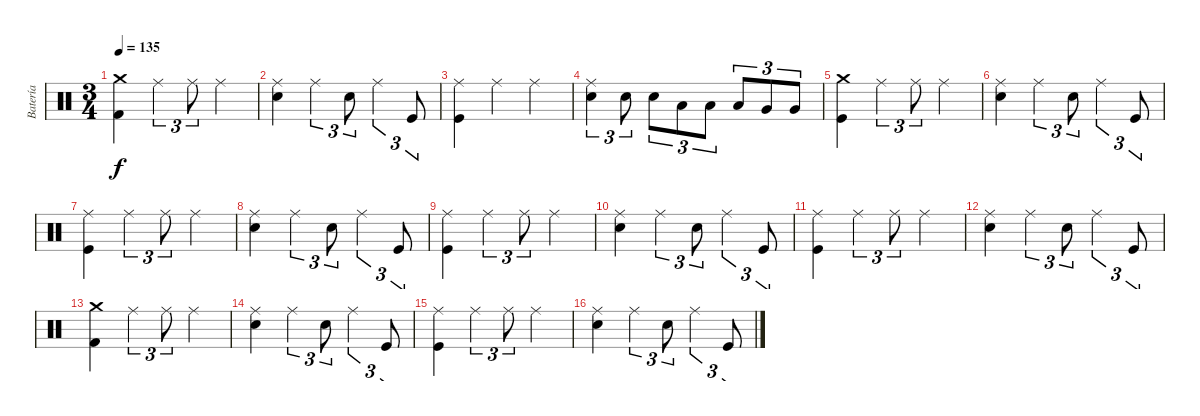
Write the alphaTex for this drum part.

\track ("Batería" "Batería") {instrument percussion}
\staff {score}
\articulation defaults
\ts (3 4)
\tempo 135
\clef neutral
\ks c
("Crash medium (hit)" "Kick (hit) 2").4{dy f} "Ride (middle)".4{tu (3 2)} "Ride (middle)".8{tu (3 2)} "Ride (middle)".4 |
("Ride (middle)" "Snare (hit) 2").4 "Ride (middle)".4{tu (3 2)} "Snare (hit) 2".8{tu (3 2)} "Ride (middle)".4{tu (3 2)} "Kick (hit)".8{tu (3 2)} |
("Ride (middle)" "Kick (hit)").4 "Ride (middle)".4 "Ride (middle)".4 |
("Ride (middle)" "Snare (hit) 2").4{tu (3 2)} "Snare (hit) 2".8{tu (3 2)} "Snare (hit) 2".8{tu (3 2)} "Low Tom (hit)".8{tu (3 2)} "Low Tom (hit)".8{tu (3 2)} "Low Tom (hit)".8{tu (3 2)} "Very Low Tom (hit)".8{tu (3 2)} "Very Low Tom (hit)".8{tu (3 2)} |
("Crash medium (hit)" "Kick (hit)").4 "Ride (middle)".4{tu (3 2)} "Ride (middle)".8{tu (3 2)} "Ride (middle)".4 |
("Ride (middle)" "Snare (hit) 2").4 "Ride (middle)".4{tu (3 2)} "Snare (hit) 2".8{tu (3 2)} "Ride (middle)".4{tu (3 2)} "Kick (hit)".8{tu (3 2)} |
("Ride (middle)" "Kick (hit)").4 "Ride (middle)".4{tu (3 2)} "Ride (middle)".8{tu (3 2)} "Ride (middle)".4 |
("Ride (middle)" "Snare (hit) 2").4 "Ride (middle)".4{tu (3 2)} "Snare (hit) 2".8{tu (3 2)} "Ride (middle)".4{tu (3 2)} "Kick (hit)".8{tu (3 2)} |
("Ride (middle)" "Kick (hit)").4 "Ride (middle)".4{tu (3 2)} "Ride (middle)".8{tu (3 2)} "Ride (middle)".4 |
("Ride (middle)" "Snare (hit) 2").4 "Ride (middle)".4{tu (3 2)} "Snare (hit) 2".8{tu (3 2)} "Ride (middle)".4{tu (3 2)} "Kick (hit)".8{tu (3 2)} |
("Ride (middle)" "Kick (hit)").4 "Ride (middle)".4{tu (3 2)} "Ride (middle)".8{tu (3 2)} "Ride (middle)".4 |
("Ride (middle)" "Snare (hit) 2").4 "Ride (middle)".4{tu (3 2)} "Snare (hit) 2".8{tu (3 2)} "Ride (middle)".4{tu (3 2)} "Kick (hit)".8{tu (3 2)} |
("Crash medium (hit)" "Kick (hit) 2").4 "Ride (middle)".4{tu (3 2)} "Ride (middle)".8{tu (3 2)} "Ride (middle)".4 |
("Ride (middle)" "Snare (hit) 2").4 "Ride (middle)".4{tu (3 2)} "Snare (hit) 2".8{tu (3 2)} "Ride (middle)".4{tu (3 2)} "Kick (hit)".8{tu (3 2)} |
("Ride (middle)" "Kick (hit)").4 "Ride (middle)".4{tu (3 2)} "Ride (middle)".8{tu (3 2)} "Ride (middle)".4 |
("Ride (middle)" "Snare (hit) 2").4 "Ride (middle)".4{tu (3 2)} "Snare (hit) 2".8{tu (3 2)} "Ride (middle)".4{tu (3 2)} "Kick (hit)".8{tu (3 2)}
